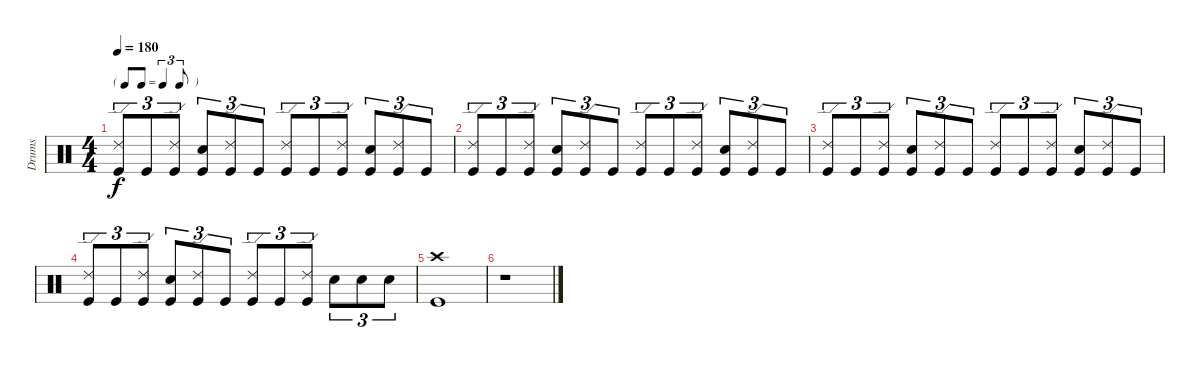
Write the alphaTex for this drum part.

\track ("Drums" "Drums") {instrument percussion}
\staff {score}
\articulation defaults
\ts (4 4)
\tf triplet8th
\tempo 180
\clef neutral
\ks c
("Ride (edge) 2" "Kick (hit)").8{tu (3 2) dy f} "Kick (hit)".8{tu (3 2)} ("Ride (edge) 2" "Kick (hit)").8{tu (3 2)} ("Electric Snare (hit)" "Kick (hit)").8{tu (3 2)} ("Ride (edge) 2" "Kick (hit)").8{tu (3 2)} "Kick (hit)".8{tu (3 2)} ("Ride (edge) 2" "Kick (hit)").8{tu (3 2)} "Kick (hit)".8{tu (3 2)} ("Ride (edge) 2" "Kick (hit)").8{tu (3 2)} ("Electric Snare (hit)" "Kick (hit)").8{tu (3 2)} ("Ride (edge) 2" "Kick (hit)").8{tu (3 2)} "Kick (hit)".8{tu (3 2)} |
("Ride (edge) 2" "Kick (hit)").8{tu (3 2)} "Kick (hit)".8{tu (3 2)} ("Ride (edge) 2" "Kick (hit)").8{tu (3 2)} ("Electric Snare (hit)" "Kick (hit)").8{tu (3 2)} ("Ride (edge) 2" "Kick (hit)").8{tu (3 2)} "Kick (hit)".8{tu (3 2)} ("Ride (edge) 2" "Kick (hit)").8{tu (3 2)} "Kick (hit)".8{tu (3 2)} ("Ride (edge) 2" "Kick (hit)").8{tu (3 2)} ("Electric Snare (hit)" "Kick (hit)").8{tu (3 2)} ("Ride (edge) 2" "Kick (hit)").8{tu (3 2)} "Kick (hit)".8{tu (3 2)} |
("Ride (edge) 2" "Kick (hit)").8{tu (3 2)} "Kick (hit)".8{tu (3 2)} ("Ride (edge) 2" "Kick (hit)").8{tu (3 2)} ("Electric Snare (hit)" "Kick (hit)").8{tu (3 2)} ("Ride (edge) 2" "Kick (hit)").8{tu (3 2)} "Kick (hit)".8{tu (3 2)} ("Ride (edge) 2" "Kick (hit)").8{tu (3 2)} "Kick (hit)".8{tu (3 2)} ("Ride (edge) 2" "Kick (hit)").8{tu (3 2)} ("Electric Snare (hit)" "Kick (hit)").8{tu (3 2)} ("Ride (edge) 2" "Kick (hit)").8{tu (3 2)} "Kick (hit)".8{tu (3 2)} |
("Ride (edge) 2" "Kick (hit)").8{tu (3 2)} "Kick (hit)".8{tu (3 2)} ("Ride (edge) 2" "Kick (hit)").8{tu (3 2)} ("Electric Snare (hit)" "Kick (hit)").8{tu (3 2)} ("Ride (edge) 2" "Kick (hit)").8{tu (3 2)} "Kick (hit)".8{tu (3 2)} ("Ride (edge) 2" "Kick (hit)").8{tu (3 2)} "Kick (hit)".8{tu (3 2)} ("Ride (edge) 2" "Kick (hit)").8{tu (3 2)} "Electric Snare (hit)".8{tu (3 2)} "Electric Snare (hit)".8{tu (3 2)} "Electric Snare (hit)".8{tu (3 2)} |
("Crash high (hit)" "Kick (hit)").1 |
r.1
